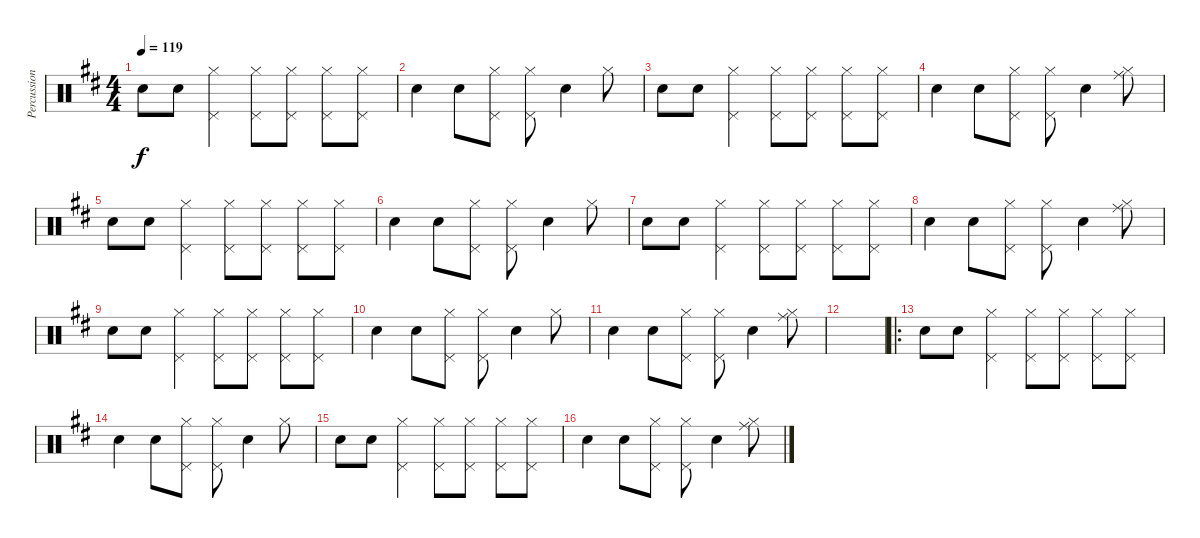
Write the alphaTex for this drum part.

\track ("Percussion" "Percussion") {instrument percussion}
\staff {score}
\articulation defaults
\ts (4 4)
\tempo 119
\clef neutral
\ks d "Electric Snare (hit)".8{dy f} "Electric Snare (hit)".8
("Pedal Hi-Hat (hit)" "Hi-Hat (closed)").4 ("Pedal Hi-Hat (hit)" "Hi-Hat (closed)").8 ("Pedal Hi-Hat (hit)" "Hi-Hat (closed)").8 ("Pedal Hi-Hat (hit)" "Hi-Hat (closed)").8 ("Pedal Hi-Hat (hit)" "Hi-Hat (closed)").8 |
"Electric Snare (hit)".4 "Electric Snare (hit)".8 ("Pedal Hi-Hat (hit)" "Hi-Hat (closed)").8 ("Pedal Hi-Hat (hit)" "Hi-Hat (closed)").8 "Electric Snare (hit)".4 "Hi-Hat (closed)".8 |
"Electric Snare (hit)".8 "Electric Snare (hit)".8 ("Pedal Hi-Hat (hit)" "Hi-Hat (closed)").4 ("Pedal Hi-Hat (hit)" "Hi-Hat (closed)").8 ("Pedal Hi-Hat (hit)" "Hi-Hat (closed)").8 ("Pedal Hi-Hat (hit)" "Hi-Hat (closed)").8 ("Pedal Hi-Hat (hit)" "Hi-Hat (closed)").8 |
"Electric Snare (hit)".4 "Electric Snare (hit)".8 ("Pedal Hi-Hat (hit)" "Hi-Hat (closed)").8 ("Pedal Hi-Hat (hit)" "Hi-Hat (closed)").8 "Electric Snare (hit)".4 ("Ride (middle)" "Hi-Hat (closed)").8 |
"Electric Snare (hit)".8 "Electric Snare (hit)".8 ("Pedal Hi-Hat (hit)" "Hi-Hat (closed)").4 ("Pedal Hi-Hat (hit)" "Hi-Hat (closed)").8 ("Pedal Hi-Hat (hit)" "Hi-Hat (closed)").8 ("Pedal Hi-Hat (hit)" "Hi-Hat (closed)").8 ("Pedal Hi-Hat (hit)" "Hi-Hat (closed)").8 |
"Electric Snare (hit)".4 "Electric Snare (hit)".8 ("Pedal Hi-Hat (hit)" "Hi-Hat (closed)").8 ("Pedal Hi-Hat (hit)" "Hi-Hat (closed)").8 "Electric Snare (hit)".4 "Hi-Hat (closed)".8 |
"Electric Snare (hit)".8 "Electric Snare (hit)".8 ("Pedal Hi-Hat (hit)" "Hi-Hat (closed)").4 ("Pedal Hi-Hat (hit)" "Hi-Hat (closed)").8 ("Pedal Hi-Hat (hit)" "Hi-Hat (closed)").8 ("Pedal Hi-Hat (hit)" "Hi-Hat (closed)").8 ("Pedal Hi-Hat (hit)" "Hi-Hat (closed)").8 |
"Electric Snare (hit)".4 "Electric Snare (hit)".8 ("Pedal Hi-Hat (hit)" "Hi-Hat (closed)").8 ("Pedal Hi-Hat (hit)" "Hi-Hat (closed)").8 "Electric Snare (hit)".4 ("Ride (middle)" "Hi-Hat (closed)").8 |
"Electric Snare (hit)".8 "Electric Snare (hit)".8 ("Pedal Hi-Hat (hit)" "Hi-Hat (closed)").4 ("Pedal Hi-Hat (hit)" "Hi-Hat (closed)").8 ("Pedal Hi-Hat (hit)" "Hi-Hat (closed)").8 ("Pedal Hi-Hat (hit)" "Hi-Hat (closed)").8 ("Pedal Hi-Hat (hit)" "Hi-Hat (closed)").8 |
"Electric Snare (hit)".4 "Electric Snare (hit)".8 ("Pedal Hi-Hat (hit)" "Hi-Hat (closed)").8 ("Pedal Hi-Hat (hit)" "Hi-Hat (closed)").8 "Electric Snare (hit)".4 "Hi-Hat (closed)".8 |
"Electric Snare (hit)".4 "Electric Snare (hit)".8 ("Pedal Hi-Hat (hit)" "Hi-Hat (closed)").8 ("Pedal Hi-Hat (hit)" "Hi-Hat (closed)").8 "Electric Snare (hit)".4 ("Ride (middle)" "Hi-Hat (closed)").8 |
|
\ro "Electric Snare (hit)".8 "Electric Snare (hit)".8
("Pedal Hi-Hat (hit)" "Hi-Hat (closed)").4 ("Pedal Hi-Hat (hit)" "Hi-Hat (closed)").8 ("Pedal Hi-Hat (hit)" "Hi-Hat (closed)").8 ("Pedal Hi-Hat (hit)" "Hi-Hat (closed)").8 ("Pedal Hi-Hat (hit)" "Hi-Hat (closed)").8 |
"Electric Snare (hit)".4 "Electric Snare (hit)".8 ("Pedal Hi-Hat (hit)" "Hi-Hat (closed)").8 ("Pedal Hi-Hat (hit)" "Hi-Hat (closed)").8 "Electric Snare (hit)".4 "Hi-Hat (closed)".8 |
"Electric Snare (hit)".8 "Electric Snare (hit)".8 ("Pedal Hi-Hat (hit)" "Hi-Hat (closed)").4 ("Pedal Hi-Hat (hit)" "Hi-Hat (closed)").8 ("Pedal Hi-Hat (hit)" "Hi-Hat (closed)").8 ("Pedal Hi-Hat (hit)" "Hi-Hat (closed)").8 ("Pedal Hi-Hat (hit)" "Hi-Hat (closed)").8 |
"Electric Snare (hit)".4 "Electric Snare (hit)".8 ("Pedal Hi-Hat (hit)" "Hi-Hat (closed)").8 ("Pedal Hi-Hat (hit)" "Hi-Hat (closed)").8 "Electric Snare (hit)".4 ("Ride (middle)" "Hi-Hat (closed)").8
